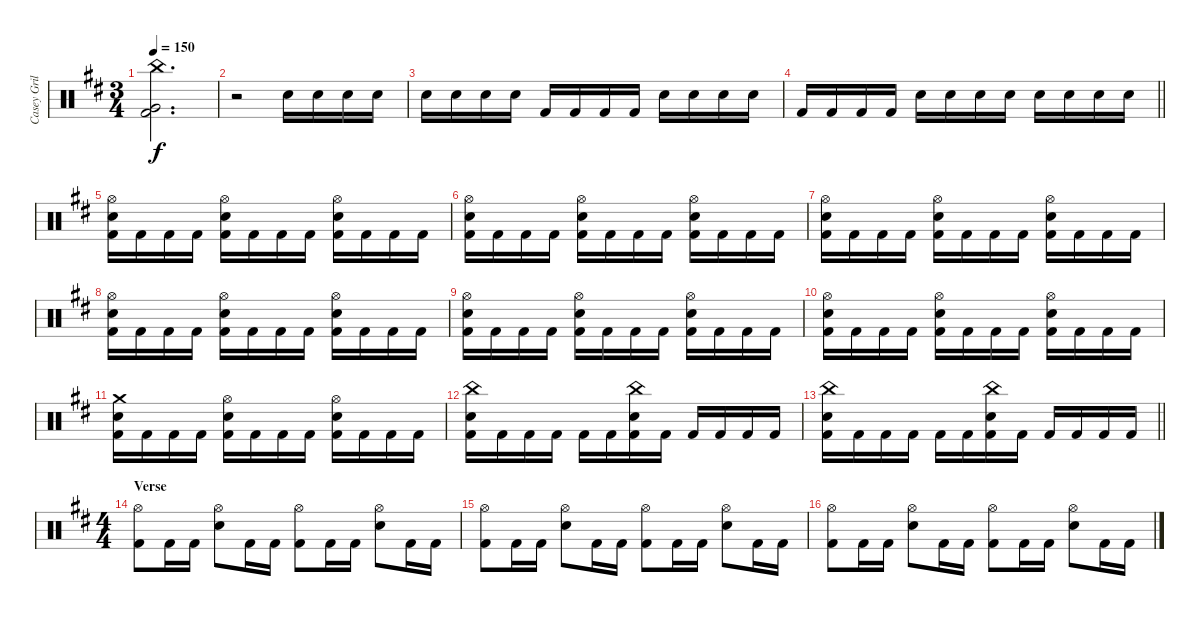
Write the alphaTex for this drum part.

\track ("Casey Grillo" "Casey Gril") {instrument percussion}
\staff {score}
\articulation defaults
\ts (3 4)
\tempo 150
\clef neutral
\ks bminor
("China (hit)" "Very Low Tom (hit)" "Kick (hit) 2").2{d dy f} |
r.2 "Electric Snare (hit)".16 "Electric Snare (hit)".16 "Electric Snare (hit)".16 "Electric Snare (hit)".16 |
"Electric Snare (hit)".16 "Electric Snare (hit)".16 "Electric Snare (hit)".16 "Electric Snare (hit)".16 "Kick (hit) 2".16 "Kick (hit) 2".16 "Kick (hit) 2".16 "Kick (hit) 2".16 "Electric Snare (hit)".16 "Electric Snare (hit)".16 "Electric Snare (hit)".16 "Electric Snare (hit)".16 |
\barLineRight lightlight "Kick (hit) 2".16 "Kick (hit) 2".16 "Kick (hit) 2".16 "Kick (hit) 2".16 "Electric Snare (hit)".16 "Electric Snare (hit)".16 "Electric Snare (hit)".16 "Electric Snare (hit)".16 "Electric Snare (hit)".16 "Electric Snare (hit)".16 "Electric Snare (hit)".16 "Electric Snare (hit)".16
|
("Hi-Hat (open)" "Electric Snare (hit)" "Kick (hit) 2").16 "Kick (hit) 2".16 "Kick (hit) 2".16 "Kick (hit) 2".16 ("Hi-Hat (open)" "Electric Snare (hit)" "Kick (hit) 2").16 "Kick (hit) 2".16 "Kick (hit) 2".16 "Kick (hit) 2".16 ("Hi-Hat (open)" "Electric Snare (hit)" "Kick (hit) 2").16 "Kick (hit) 2".16 "Kick (hit) 2".16 "Kick (hit) 2".16 |
("Hi-Hat (open)" "Electric Snare (hit)" "Kick (hit) 2").16 "Kick (hit) 2".16 "Kick (hit) 2".16 "Kick (hit) 2".16 ("Hi-Hat (open)" "Electric Snare (hit)" "Kick (hit) 2").16 "Kick (hit) 2".16 "Kick (hit) 2".16 "Kick (hit) 2".16 ("Hi-Hat (open)" "Electric Snare (hit)" "Kick (hit) 2").16 "Kick (hit) 2".16 "Kick (hit) 2".16 "Kick (hit) 2".16 |
("Hi-Hat (open)" "Electric Snare (hit)" "Kick (hit) 2").16 "Kick (hit) 2".16 "Kick (hit) 2".16 "Kick (hit) 2".16 ("Hi-Hat (open)" "Electric Snare (hit)" "Kick (hit) 2").16 "Kick (hit) 2".16 "Kick (hit) 2".16 "Kick (hit) 2".16 ("Hi-Hat (open)" "Electric Snare (hit)" "Kick (hit) 2").16 "Kick (hit) 2".16 "Kick (hit) 2".16 "Kick (hit) 2".16 |
("Hi-Hat (open)" "Electric Snare (hit)" "Kick (hit) 2").16 "Kick (hit) 2".16 "Kick (hit) 2".16 "Kick (hit) 2".16 ("Hi-Hat (open)" "Electric Snare (hit)" "Kick (hit) 2").16 "Kick (hit) 2".16 "Kick (hit) 2".16 "Kick (hit) 2".16 ("Hi-Hat (open)" "Electric Snare (hit)" "Kick (hit) 2").16 "Kick (hit) 2".16 "Kick (hit) 2".16 "Kick (hit) 2".16 |
("Hi-Hat (open)" "Electric Snare (hit)" "Kick (hit) 2").16 "Kick (hit) 2".16 "Kick (hit) 2".16 "Kick (hit) 2".16 ("Hi-Hat (open)" "Electric Snare (hit)" "Kick (hit) 2").16 "Kick (hit) 2".16 "Kick (hit) 2".16 "Kick (hit) 2".16 ("Hi-Hat (open)" "Electric Snare (hit)" "Kick (hit) 2").16 "Kick (hit) 2".16 "Kick (hit) 2".16 "Kick (hit) 2".16 |
("Hi-Hat (open)" "Electric Snare (hit)" "Kick (hit) 2").16 "Kick (hit) 2".16 "Kick (hit) 2".16 "Kick (hit) 2".16 ("Hi-Hat (open)" "Electric Snare (hit)" "Kick (hit) 2").16 "Kick (hit) 2".16 "Kick (hit) 2".16 "Kick (hit) 2".16 ("Hi-Hat (open)" "Electric Snare (hit)" "Kick (hit) 2").16 "Kick (hit) 2".16 "Kick (hit) 2".16 "Kick (hit) 2".16 |
("Crash medium (hit)" "Electric Snare (hit)" "Kick (hit) 2").16 "Kick (hit) 2".16 "Kick (hit) 2".16 "Kick (hit) 2".16 ("Hi-Hat (open)" "Electric Snare (hit)" "Kick (hit) 2").16 "Kick (hit) 2".16 "Kick (hit) 2".16 "Kick (hit) 2".16 ("Hi-Hat (open)" "Electric Snare (hit)" "Kick (hit) 2").16 "Kick (hit) 2".16 "Kick (hit) 2".16 "Kick (hit) 2".16 |
("China (hit)" "Electric Snare (hit)" "Kick (hit) 2").16 "Kick (hit) 2".16 "Kick (hit) 2".16 "Kick (hit) 2".16 "Kick (hit) 2".16 "Kick (hit) 2".16 ("China (hit)" "Electric Snare (hit)" "Kick (hit) 2").16 "Kick (hit) 2".16 "Kick (hit) 2".16 "Kick (hit) 2".16 "Kick (hit) 2".16 "Kick (hit) 2".16 |
\barLineRight lightlight
("China (hit)" "Electric Snare (hit)" "Kick (hit) 2").16 "Kick (hit) 2".16 "Kick (hit) 2".16 "Kick (hit) 2".16 "Kick (hit) 2".16 "Kick (hit) 2".16 ("China (hit)" "Electric Snare (hit)" "Kick (hit) 2").16 "Kick (hit) 2".16 "Kick (hit) 2".16 "Kick (hit) 2".16 "Kick (hit) 2".16 "Kick (hit) 2".16 |
\ts (4 4)
\section ("" "Verse")
("Hi-Hat (open)" "Kick (hit) 2").8 "Kick (hit) 2".16 "Kick (hit) 2".16 ("Hi-Hat (open)" "Electric Snare (hit)").8 "Kick (hit) 2".16 "Kick (hit) 2".16 ("Hi-Hat (open)" "Kick (hit) 2").8 "Kick (hit) 2".16 "Kick (hit) 2".16 ("Hi-Hat (open)" "Electric Snare (hit)").8 "Kick (hit) 2".16 "Kick (hit) 2".16 |
("Hi-Hat (open)" "Kick (hit) 2").8 "Kick (hit) 2".16 "Kick (hit) 2".16 ("Hi-Hat (open)" "Electric Snare (hit)").8 "Kick (hit) 2".16 "Kick (hit) 2".16 ("Hi-Hat (open)" "Kick (hit) 2").8 "Kick (hit) 2".16 "Kick (hit) 2".16 ("Hi-Hat (open)" "Electric Snare (hit)").8 "Kick (hit) 2".16 "Kick (hit) 2".16 |
("Hi-Hat (open)" "Kick (hit) 2").8 "Kick (hit) 2".16 "Kick (hit) 2".16 ("Hi-Hat (open)" "Electric Snare (hit)").8 "Kick (hit) 2".16 "Kick (hit) 2".16 ("Hi-Hat (open)" "Kick (hit) 2").8 "Kick (hit) 2".16 "Kick (hit) 2".16 ("Hi-Hat (open)" "Electric Snare (hit)").8 "Kick (hit) 2".16 "Kick (hit) 2".16
